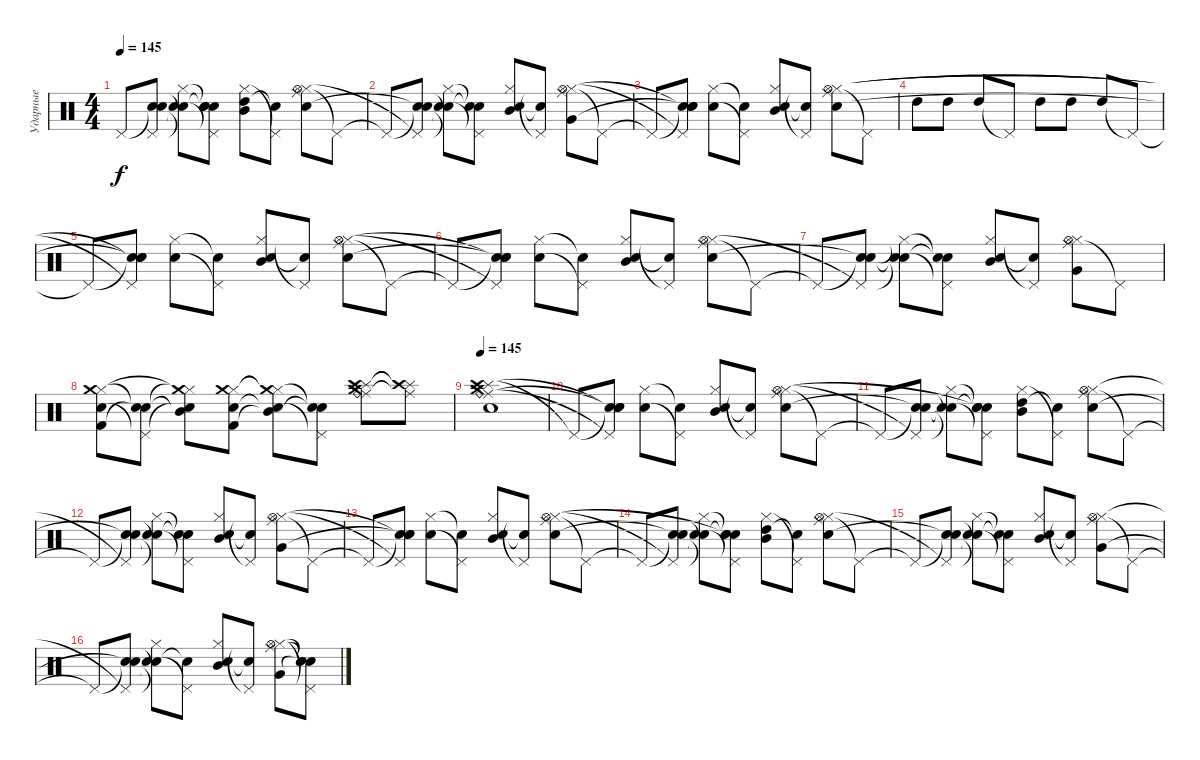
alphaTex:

\track ("Ударные" "Ударные") {instrument percussion}
\staff {score}
\articulation defaults
\ts (4 4)
\tempo 145
\clef neutral
\ks c "Pedal Hi-Hat (hit)"{t}.8{dy f}
("Snare (hit)"{t} "Pedal Hi-Hat (hit)"{t} "Snare (hit)"{t}).8 ("Snare (hit)"{t} "Snare (hit) 2"{t} "Hi-Hat (closed)"{t}).8 ("Snare (hit)"{t} "Pedal Hi-Hat (hit)"{t} "Snare (hit)"{t} "Snare (hit)"{t}).8 ("Hi-Hat (closed)" "High Tom (hit)" "Mid Tom (hit)").8 ("Pedal Hi-Hat (hit)"{t} "Snare (hit)"{t}).8 ("Ride (middle)" "Hi-Hat (closed)" "Snare (hit) 2" "Hi-Hat (open)").8 "Pedal Hi-Hat (hit)"{t}.8 |
"Pedal Hi-Hat (hit)"{t}.8 ("Snare (hit)"{t} "Pedal Hi-Hat (hit)"{t} "Snare (hit)"{t}).8 ("Snare (hit)"{t} "Snare (hit) 2"{t} "Hi-Hat (closed)"{t}).8 ("Pedal Hi-Hat (hit)"{t} "Snare (hit)"{t} "Snare (hit)"{t}).8 ("Hi-Hat (closed)" "Snare (hit) 2" "Mid Tom (hit)").8 ("Pedal Hi-Hat (hit)"{t} "Snare (hit)"{t}).8 ("Ride (middle)" "Hi-Hat (closed)" "Very Low Tom (hit)" "Hi-Hat (open)").8 "Pedal Hi-Hat (hit)"{t}.8 |
"Pedal Hi-Hat (hit)"{t}.8 ("Snare (hit)"{t} "Pedal Hi-Hat (hit)"{t} "Snare (hit)"{t} "Snare (hit)"{t}).8 ("Snare (hit) 2" "Hi-Hat (closed)").8 ("Pedal Hi-Hat (hit)"{t} "Snare (hit)"{t}).8 ("Hi-Hat (closed)" "Snare (hit) 2" "Mid Tom (hit)").8 ("Pedal Hi-Hat (hit)"{t} "Snare (hit)"{t}).8 ("Ride (middle)" "Hi-Hat (closed)" "Snare (hit) 2" "Hi-Hat (open)").8 "Pedal Hi-Hat (hit)"{t}.8 |
"High Tom (hit)".8 "High Tom (hit)".8 "High Tom (hit)".8 "Pedal Hi-Hat (hit)"{t}.8 "High Tom (hit)".8 "High Tom (hit)".8 "High Tom (hit)".8 "Pedal Hi-Hat (hit)"{t}.8 |
"Pedal Hi-Hat (hit)"{t}.8 ("Snare (hit)"{t} "Pedal Hi-Hat (hit)"{t} "Snare (hit)"{t} "Snare (hit)"{t}).8 ("Snare (hit) 2" "Hi-Hat (closed)").8 ("Pedal Hi-Hat (hit)"{t} "Snare (hit)"{t}).8 ("Hi-Hat (closed)" "Snare (hit) 2" "Mid Tom (hit)").8 ("Pedal Hi-Hat (hit)"{t} "Snare (hit)"{t}).8 ("Ride (middle)" "Hi-Hat (closed)" "Snare (hit) 2" "Hi-Hat (open)").8 "Pedal Hi-Hat (hit)"{t}.8 |
"Pedal Hi-Hat (hit)"{t}.8 ("Snare (hit)"{t} "Pedal Hi-Hat (hit)"{t} "Snare (hit)"{t} "Snare (hit)"{t}).8 ("Snare (hit) 2" "Hi-Hat (closed)").8 ("Pedal Hi-Hat (hit)"{t} "Snare (hit)"{t}).8 ("Hi-Hat (closed)" "Snare (hit) 2" "Mid Tom (hit)").8 ("Pedal Hi-Hat (hit)"{t} "Snare (hit)"{t}).8 ("Ride (middle)" "Hi-Hat (closed)" "Snare (hit) 2" "Hi-Hat (open)").8 "Pedal Hi-Hat (hit)"{t}.8 |
"Pedal Hi-Hat (hit)"{t}.8 ("Snare (hit)"{t} "Pedal Hi-Hat (hit)"{t} "Snare (hit)"{t}).8 ("Snare (hit)"{t} "Snare (hit) 2"{t} "Hi-Hat (closed)"{t}).8 ("Pedal Hi-Hat (hit)"{t} "Snare (hit)"{t} "Snare (hit)"{t}).8 ("Hi-Hat (closed)" "Snare (hit) 2" "Mid Tom (hit)").8 ("Pedal Hi-Hat (hit)"{t} "Snare (hit)"{t}).8 ("Ride (middle)" "Hi-Hat (closed)" "Very Low Tom (hit)" "Hi-Hat (open)").8 "Pedal Hi-Hat (hit)"{t}.8 |
("Kick (hit) 2" "Snare (hit) 2" "Hi-Hat (closed)" "Crash medium (hit)").8 ("Snare (hit)"{t} "Pedal Hi-Hat (hit)"{t} "Snare (hit)"{t}).8 ("Mid Tom (hit)"{t} "Electric Snare (hit)"{t} "Hi-Hat (closed)"{t} "Crash medium (hit)"{t}).8 ("Kick (hit) 2" "Snare (hit) 2" "Hi-Hat (closed)" "Crash medium (hit)").8 ("Mid Tom (hit)"{t} "Electric Snare (hit)"{t} "Hi-Hat (closed)"{t} "Crash medium (hit)"{t}).8 ("Snare (hit)"{t} "Pedal Hi-Hat (hit)"{t} "Snare (hit)"{t}).8 ("Splash (hit)" "Ride (middle)" "Crash high (hit)" "Ride (bell)" "Crash medium (hit)").8 ("Splash (hit)"{t} "Ride (middle)"{t} "Crash high (hit)"{t}).8 |
\tempo 145
("Splash (hit)" "Ride (middle)" "Crash high (hit)" "Ride (bell)" "Crash medium (hit)" "Electric Snare (hit)").1 |
"Pedal Hi-Hat (hit)"{t}.8 ("Snare (hit)"{t} "Pedal Hi-Hat (hit)"{t} "Snare (hit)"{t} "Snare (hit)"{t}).8 ("Snare (hit) 2" "Hi-Hat (closed)").8 ("Pedal Hi-Hat (hit)"{t} "Snare (hit)"{t}).8 ("Hi-Hat (closed)" "Snare (hit) 2" "Mid Tom (hit)").8 ("Pedal Hi-Hat (hit)"{t} "Snare (hit)"{t}).8 ("Ride (middle)" "Hi-Hat (closed)" "Snare (hit) 2" "Hi-Hat (open)").8 "Pedal Hi-Hat (hit)"{t}.8 |
"Pedal Hi-Hat (hit)"{t}.8 ("Snare (hit)"{t} "Pedal Hi-Hat (hit)"{t} "Snare (hit)"{t}).8 ("Snare (hit)"{t} "Snare (hit) 2"{t} "Hi-Hat (closed)"{t}).8 ("Snare (hit)"{t} "Pedal Hi-Hat (hit)"{t} "Snare (hit)"{t} "Snare (hit)"{t}).8 ("Hi-Hat (closed)" "High Tom (hit)" "Mid Tom (hit)").8 ("Pedal Hi-Hat (hit)"{t} "Snare (hit)"{t}).8 ("Ride (middle)" "Hi-Hat (closed)" "Snare (hit) 2" "Hi-Hat (open)").8 "Pedal Hi-Hat (hit)"{t}.8 |
"Pedal Hi-Hat (hit)"{t}.8 ("Snare (hit)"{t} "Pedal Hi-Hat (hit)"{t} "Snare (hit)"{t}).8 ("Snare (hit)"{t} "Snare (hit) 2"{t} "Hi-Hat (closed)"{t}).8 ("Pedal Hi-Hat (hit)"{t} "Snare (hit)"{t} "Snare (hit)"{t}).8 ("Hi-Hat (closed)" "Snare (hit) 2" "Mid Tom (hit)").8 ("Pedal Hi-Hat (hit)"{t} "Snare (hit)"{t}).8 ("Ride (middle)" "Hi-Hat (closed)" "Very Low Tom (hit)" "Hi-Hat (open)").8 "Pedal Hi-Hat (hit)"{t}.8 |
"Pedal Hi-Hat (hit)"{t}.8 ("Snare (hit)"{t} "Pedal Hi-Hat (hit)"{t} "Snare (hit)"{t} "Snare (hit)"{t}).8 ("Snare (hit) 2" "Hi-Hat (closed)").8 ("Pedal Hi-Hat (hit)"{t} "Snare (hit)"{t}).8 ("Hi-Hat (closed)" "Snare (hit) 2" "Mid Tom (hit)").8 ("Pedal Hi-Hat (hit)"{t} "Snare (hit)"{t}).8 ("Ride (middle)" "Hi-Hat (closed)" "Snare (hit) 2" "Hi-Hat (open)").8 "Pedal Hi-Hat (hit)"{t}.8 |
"Pedal Hi-Hat (hit)"{t}.8 ("Snare (hit)"{t} "Pedal Hi-Hat (hit)"{t} "Snare (hit)"{t}).8 ("Snare (hit)"{t} "Snare (hit) 2"{t} "Hi-Hat (closed)"{t}).8 ("Snare (hit)"{t} "Pedal Hi-Hat (hit)"{t} "Snare (hit)"{t} "Snare (hit)"{t}).8 ("Hi-Hat (closed)" "High Tom (hit)" "Mid Tom (hit)").8 ("Pedal Hi-Hat (hit)"{t} "Snare (hit)"{t}).8 ("Ride (middle)" "Hi-Hat (closed)" "Snare (hit) 2" "Hi-Hat (open)").8 "Pedal Hi-Hat (hit)"{t}.8 |
"Pedal Hi-Hat (hit)"{t}.8 ("Snare (hit)"{t} "Pedal Hi-Hat (hit)"{t} "Snare (hit)"{t}).8 ("Snare (hit)"{t} "Snare (hit) 2"{t} "Hi-Hat (closed)"{t}).8 ("Pedal Hi-Hat (hit)"{t} "Snare (hit)"{t} "Snare (hit)"{t}).8 ("Hi-Hat (closed)" "Snare (hit) 2" "Mid Tom (hit)").8 ("Pedal Hi-Hat (hit)"{t} "Snare (hit)"{t}).8 ("Ride (middle)" "Hi-Hat (closed)" "Very Low Tom (hit)" "Hi-Hat (open)").8 "Pedal Hi-Hat (hit)"{t}.8 |
"Pedal Hi-Hat (hit)"{t}.8 ("Snare (hit)"{t} "Pedal Hi-Hat (hit)"{t} "Snare (hit)"{t}).8 ("Snare (hit)"{t} "Snare (hit) 2"{t} "Hi-Hat (closed)"{t}).8 ("Pedal Hi-Hat (hit)"{t} "Snare (hit)"{t}).8 ("Hi-Hat (closed)" "Snare (hit) 2" "Mid Tom (hit)").8 ("Pedal Hi-Hat (hit)"{t} "Snare (hit)"{t}).8 ("Ride (middle)" "Hi-Hat (closed)" "Very Low Tom (hit)" "Hi-Hat (open)").8 ("Snare (hit)"{t} "Pedal Hi-Hat (hit)"{t} "Snare (hit)"{t} "Snare (hit)"{t}).8
